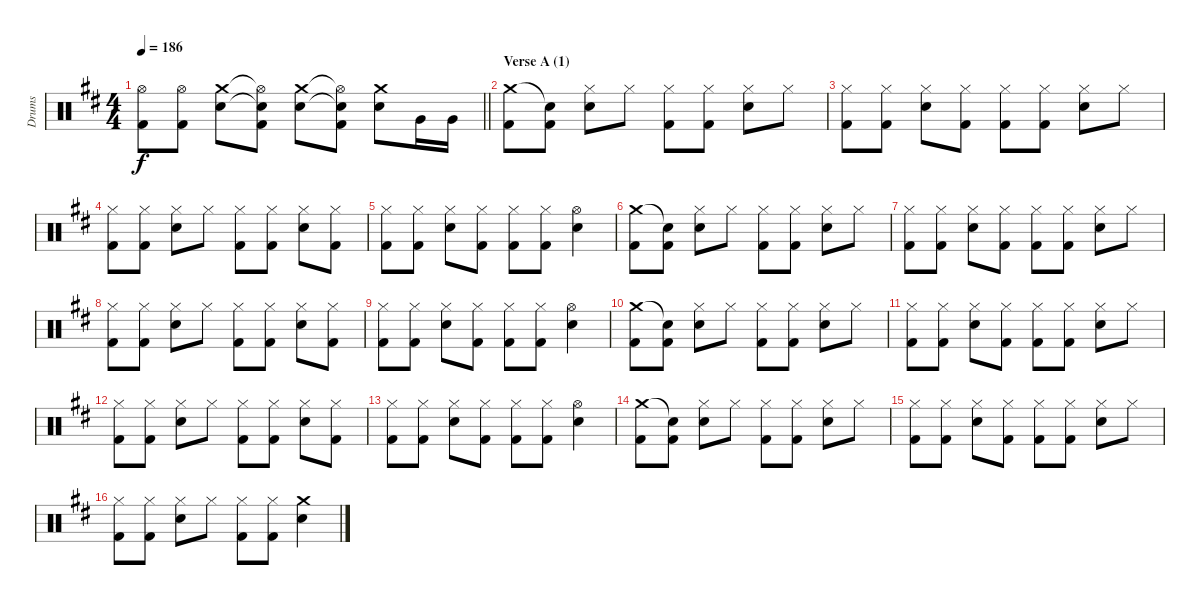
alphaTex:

\track ("Drums" "Drums") {instrument percussion}
\staff {score}
\articulation defaults
\ts (4 4)
\tempo 186
\clef neutral
\barLineRight lightlight
\ks d
("Hi-Hat (open)" "Kick (hit) 2").8{dy f} ("Hi-Hat (open)" "Kick (hit) 2").8 ("Crash medium (hit)" "Electric Snare (hit)").8 ("Hi-Hat (open)"{t} "Snare (hit)"{t} "Kick (hit) 2").8 ("Crash medium (hit)" "Electric Snare (hit)").8 ("Hi-Hat (open)"{t} "Snare (hit)"{t} "Kick (hit) 2").8 ("Crash medium (hit)" "Electric Snare (hit)").8 "Very Low Tom (hit)".16 "Very Low Tom (hit)".16 |
\section ("" "Verse A (1)")
("Crash medium (hit)" "Kick (hit) 2").8 ("Snare (hit)"{t} "Kick (hit) 2").8 ("Hi-Hat (closed)" "Electric Snare (hit)").8 "Hi-Hat (closed)".8 ("Hi-Hat (closed)" "Kick (hit) 2").8 ("Hi-Hat (closed)" "Kick (hit) 2").8 ("Hi-Hat (closed)" "Electric Snare (hit)").8 "Hi-Hat (closed)".8 |
("Hi-Hat (closed)" "Kick (hit) 2").8 ("Hi-Hat (closed)" "Kick (hit) 2").8 ("Hi-Hat (closed)" "Electric Snare (hit)").8 ("Hi-Hat (closed)" "Kick (hit) 2").8 ("Hi-Hat (closed)" "Kick (hit) 2").8 ("Hi-Hat (closed)" "Kick (hit) 2").8 ("Hi-Hat (closed)" "Electric Snare (hit)").8 "Hi-Hat (closed)".8 |
("Hi-Hat (closed)" "Kick (hit) 2").8 ("Hi-Hat (closed)" "Kick (hit) 2").8 ("Hi-Hat (closed)" "Electric Snare (hit)").8 "Hi-Hat (closed)".8 ("Hi-Hat (closed)" "Kick (hit) 2").8 ("Hi-Hat (closed)" "Kick (hit) 2").8 ("Hi-Hat (closed)" "Electric Snare (hit)").8 ("Hi-Hat (closed)" "Kick (hit) 2").8 |
("Hi-Hat (closed)" "Kick (hit) 2").8 ("Hi-Hat (closed)" "Kick (hit) 2").8 ("Hi-Hat (closed)" "Electric Snare (hit)").8 ("Hi-Hat (closed)" "Kick (hit) 2").8 ("Hi-Hat (closed)" "Kick (hit) 2").8 ("Hi-Hat (closed)" "Kick (hit) 2").8 ("Hi-Hat (open)" "Electric Snare (hit)").4 |
("Crash medium (hit)" "Kick (hit) 2").8 ("Snare (hit)"{t} "Kick (hit) 2").8 ("Hi-Hat (closed)" "Electric Snare (hit)").8 "Hi-Hat (closed)".8 ("Hi-Hat (closed)" "Kick (hit) 2").8 ("Hi-Hat (closed)" "Kick (hit) 2").8 ("Hi-Hat (closed)" "Electric Snare (hit)").8 "Hi-Hat (closed)".8 |
("Hi-Hat (closed)" "Kick (hit) 2").8 ("Hi-Hat (closed)" "Kick (hit) 2").8 ("Hi-Hat (closed)" "Electric Snare (hit)").8 ("Hi-Hat (closed)" "Kick (hit) 2").8 ("Hi-Hat (closed)" "Kick (hit) 2").8 ("Hi-Hat (closed)" "Kick (hit) 2").8 ("Hi-Hat (closed)" "Electric Snare (hit)").8 "Hi-Hat (closed)".8 |
("Hi-Hat (closed)" "Kick (hit) 2").8 ("Hi-Hat (closed)" "Kick (hit) 2").8 ("Hi-Hat (closed)" "Electric Snare (hit)").8 "Hi-Hat (closed)".8 ("Hi-Hat (closed)" "Kick (hit) 2").8 ("Hi-Hat (closed)" "Kick (hit) 2").8 ("Hi-Hat (closed)" "Electric Snare (hit)").8 ("Hi-Hat (closed)" "Kick (hit) 2").8 |
("Hi-Hat (closed)" "Kick (hit) 2").8 ("Hi-Hat (closed)" "Kick (hit) 2").8 ("Hi-Hat (closed)" "Electric Snare (hit)").8 ("Hi-Hat (closed)" "Kick (hit) 2").8 ("Hi-Hat (closed)" "Kick (hit) 2").8 ("Hi-Hat (closed)" "Kick (hit) 2").8 ("Hi-Hat (open)" "Electric Snare (hit)").4 |
("Crash medium (hit)" "Kick (hit) 2").8 ("Snare (hit)"{t} "Kick (hit) 2").8 ("Hi-Hat (closed)" "Electric Snare (hit)").8 "Hi-Hat (closed)".8 ("Hi-Hat (closed)" "Kick (hit) 2").8 ("Hi-Hat (closed)" "Kick (hit) 2").8 ("Hi-Hat (closed)" "Electric Snare (hit)").8 "Hi-Hat (closed)".8 |
("Hi-Hat (closed)" "Kick (hit) 2").8 ("Hi-Hat (closed)" "Kick (hit) 2").8 ("Hi-Hat (closed)" "Electric Snare (hit)").8 ("Hi-Hat (closed)" "Kick (hit) 2").8 ("Hi-Hat (closed)" "Kick (hit) 2").8 ("Hi-Hat (closed)" "Kick (hit) 2").8 ("Hi-Hat (closed)" "Electric Snare (hit)").8 "Hi-Hat (closed)".8 |
("Hi-Hat (closed)" "Kick (hit) 2").8 ("Hi-Hat (closed)" "Kick (hit) 2").8 ("Hi-Hat (closed)" "Electric Snare (hit)").8 "Hi-Hat (closed)".8 ("Hi-Hat (closed)" "Kick (hit) 2").8 ("Hi-Hat (closed)" "Kick (hit) 2").8 ("Hi-Hat (closed)" "Electric Snare (hit)").8 ("Hi-Hat (closed)" "Kick (hit) 2").8 |
("Hi-Hat (closed)" "Kick (hit) 2").8 ("Hi-Hat (closed)" "Kick (hit) 2").8 ("Hi-Hat (closed)" "Electric Snare (hit)").8 ("Hi-Hat (closed)" "Kick (hit) 2").8 ("Hi-Hat (closed)" "Kick (hit) 2").8 ("Hi-Hat (closed)" "Kick (hit) 2").8 ("Hi-Hat (open)" "Electric Snare (hit)").4 |
("Crash medium (hit)" "Kick (hit) 2").8 ("Snare (hit)"{t} "Kick (hit) 2").8 ("Hi-Hat (closed)" "Electric Snare (hit)").8 "Hi-Hat (closed)".8 ("Hi-Hat (closed)" "Kick (hit) 2").8 ("Hi-Hat (closed)" "Kick (hit) 2").8 ("Hi-Hat (closed)" "Electric Snare (hit)").8 "Hi-Hat (closed)".8 |
("Hi-Hat (closed)" "Kick (hit) 2").8 ("Hi-Hat (closed)" "Kick (hit) 2").8 ("Hi-Hat (closed)" "Electric Snare (hit)").8 ("Hi-Hat (closed)" "Kick (hit) 2").8 ("Hi-Hat (closed)" "Kick (hit) 2").8 ("Hi-Hat (closed)" "Kick (hit) 2").8 ("Hi-Hat (closed)" "Electric Snare (hit)").8 "Hi-Hat (closed)".8 |
("Hi-Hat (closed)" "Kick (hit) 2").8 ("Hi-Hat (closed)" "Kick (hit) 2").8 ("Hi-Hat (closed)" "Electric Snare (hit)").8 "Hi-Hat (closed)".8 ("Hi-Hat (closed)" "Kick (hit) 2").8 ("Hi-Hat (closed)" "Kick (hit) 2").8 ("Crash medium (hit)" "Electric Snare (hit)").4
